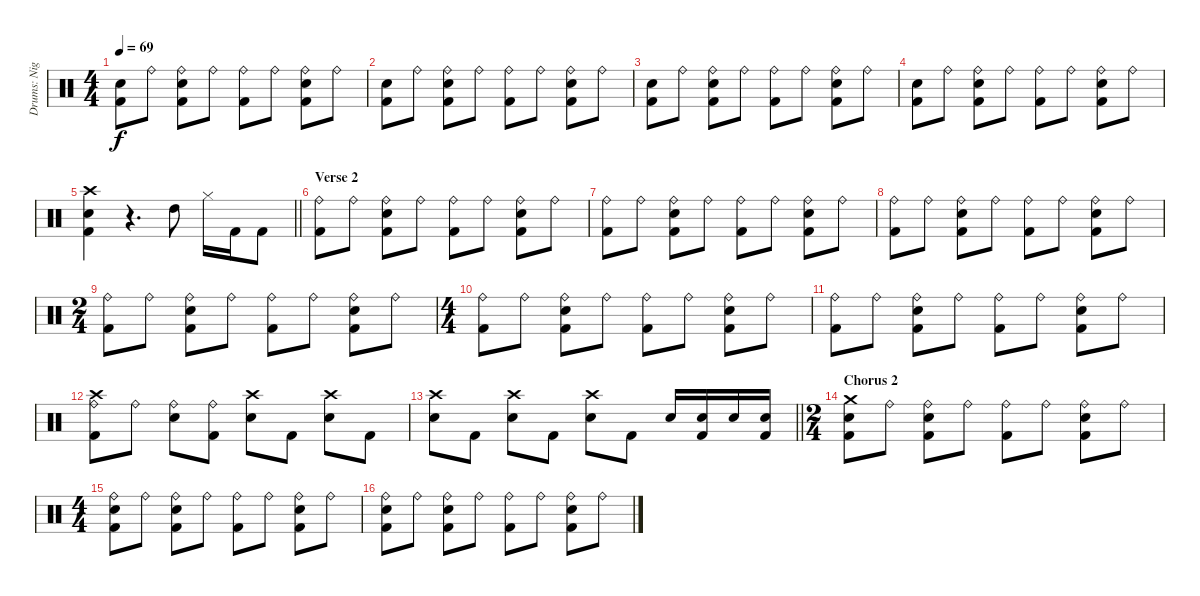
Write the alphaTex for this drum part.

\track ("Drums: Nigel Olsson" "Drums: Nig") {instrument percussion}
\staff {score}
\articulation defaults
\ts (4 4)
\tempo 69
\clef neutral
\ks c
("Snare (hit) 2" "Kick (hit) 2").8{dy f} "Ride (bell)".8 ("Ride (bell)" "Snare (hit) 2" "Kick (hit) 2").8 "Ride (bell)".8 ("Ride (bell)" "Kick (hit) 2").8 "Ride (bell)".8 ("Ride (bell)" "Snare (hit) 2" "Kick (hit) 2").8 "Ride (bell)".8 |
("Snare (hit) 2" "Kick (hit) 2").8 "Ride (bell)".8 ("Ride (bell)" "Snare (hit) 2" "Kick (hit) 2").8 "Ride (bell)".8 ("Ride (bell)" "Kick (hit) 2").8 "Ride (bell)".8 ("Ride (bell)" "Snare (hit) 2" "Kick (hit) 2").8 "Ride (bell)".8 |
("Snare (hit) 2" "Kick (hit) 2").8 "Ride (bell)".8 ("Ride (bell)" "Snare (hit) 2" "Kick (hit) 2").8 "Ride (bell)".8 ("Ride (bell)" "Kick (hit) 2").8 "Ride (bell)".8 ("Ride (bell)" "Snare (hit) 2" "Kick (hit) 2").8 "Ride (bell)".8 |
("Snare (hit) 2" "Kick (hit) 2").8 "Ride (bell)".8 ("Ride (bell)" "Snare (hit) 2" "Kick (hit) 2").8 "Ride (bell)".8 ("Ride (bell)" "Kick (hit) 2").8 "Ride (bell)".8 ("Ride (bell)" "Snare (hit) 2" "Kick (hit) 2").8 "Ride (bell)".8 |
\barLineRight lightlight
("Crash high (hit)" "Snare (hit) 2" "Kick (hit) 2").4 r.4{d} "High Tom (hit)".8 "Hi-Hat (closed)".16 "Kick (hit) 2".16 "Kick (hit) 2".8 |
\section ("" "Verse 2")
("Ride (bell)" "Kick (hit) 2").8 "Ride (bell)".8 ("Electric Snare (hit)" "Ride (bell)" "Kick (hit) 2").8 "Ride (bell)".8 ("Ride (bell)" "Kick (hit) 2").8 "Ride (bell)".8 ("Ride (bell)" "Electric Snare (hit)" "Kick (hit) 2").8 "Ride (bell)".8 |
("Ride (bell)" "Kick (hit) 2").8 "Ride (bell)".8 ("Electric Snare (hit)" "Ride (bell)" "Kick (hit) 2").8 "Ride (bell)".8 ("Ride (bell)" "Kick (hit) 2").8 "Ride (bell)".8 ("Ride (bell)" "Electric Snare (hit)" "Kick (hit) 2").8 "Ride (bell)".8 |
("Ride (bell)" "Kick (hit) 2").8 "Ride (bell)".8 ("Electric Snare (hit)" "Ride (bell)" "Kick (hit) 2").8 "Ride (bell)".8 ("Ride (bell)" "Kick (hit) 2").8 "Ride (bell)".8 ("Ride (bell)" "Electric Snare (hit)" "Kick (hit) 2").8 "Ride (bell)".8 |
\ts (2 4)
("Ride (bell)" "Kick (hit) 2").8 "Ride (bell)".8 ("Electric Snare (hit)" "Ride (bell)" "Kick (hit) 2").8 "Ride (bell)".8 ("Ride (bell)" "Kick (hit) 2").8 "Ride (bell)".8 ("Ride (bell)" "Electric Snare (hit)" "Kick (hit) 2").8 "Ride (bell)".8 |
\ts (4 4)
("Ride (bell)" "Kick (hit) 2").8 "Ride (bell)".8 ("Electric Snare (hit)" "Ride (bell)" "Kick (hit) 2").8 "Ride (bell)".8 ("Ride (bell)" "Kick (hit) 2").8 "Ride (bell)".8 ("Ride (bell)" "Electric Snare (hit)" "Kick (hit) 2").8 "Ride (bell)".8 |
("Ride (bell)" "Kick (hit) 2").8 "Ride (bell)".8 ("Electric Snare (hit)" "Ride (bell)" "Kick (hit) 2").8 "Ride (bell)".8 ("Ride (bell)" "Kick (hit) 2").8 "Ride (bell)".8 ("Ride (bell)" "Electric Snare (hit)" "Kick (hit) 2").8 "Ride (bell)".8 |
("Crash high (hit)" "Ride (bell)" "Kick (hit) 2").8 "Ride (bell)".8 ("Electric Snare (hit)" "Ride (bell)").8 ("Kick (hit) 2" "Ride (bell)").8 ("Crash high (hit)" "Electric Snare (hit)").8 "Kick (hit) 2".8 ("Crash high (hit)" "Electric Snare (hit)").8 "Kick (hit) 2".8 |
\barLineRight lightlight
("Crash high (hit)" "Electric Snare (hit)").8 "Kick (hit) 2".8 ("Crash high (hit)" "Electric Snare (hit)").8 "Kick (hit) 2".8 ("Crash high (hit)" "Electric Snare (hit)").8 "Kick (hit) 2".8 "Snare (hit) 2".16 ("Snare (hit) 2" "Kick (hit) 2").16 "Snare (hit) 2".16 ("Snare (hit) 2" "Kick (hit) 2").16 |
\ts (2 4)
\section ("" "Chorus 2")
("Crash medium (hit)" "Snare (hit) 2" "Kick (hit) 2").8 "Ride (bell)".8 ("Ride (bell)" "Snare (hit) 2" "Kick (hit) 2").8 "Ride (bell)".8 ("Ride (bell)" "Kick (hit) 2").8 "Ride (bell)".8 ("Ride (bell)" "Snare (hit) 2" "Kick (hit) 2").8 "Ride (bell)".8 |
\ts (4 4)
("Ride (bell)" "Snare (hit) 2" "Kick (hit) 2").8 "Ride (bell)".8 ("Ride (bell)" "Snare (hit) 2" "Kick (hit) 2").8 "Ride (bell)".8 ("Ride (bell)" "Kick (hit) 2").8 "Ride (bell)".8 ("Ride (bell)" "Snare (hit) 2" "Kick (hit) 2").8 "Ride (bell)".8 |
("Ride (bell)" "Snare (hit) 2" "Kick (hit) 2").8 "Ride (bell)".8 ("Ride (bell)" "Snare (hit) 2" "Kick (hit) 2").8 "Ride (bell)".8 ("Ride (bell)" "Kick (hit) 2").8 "Ride (bell)".8 ("Ride (bell)" "Snare (hit) 2" "Kick (hit) 2").8 "Ride (bell)".8
